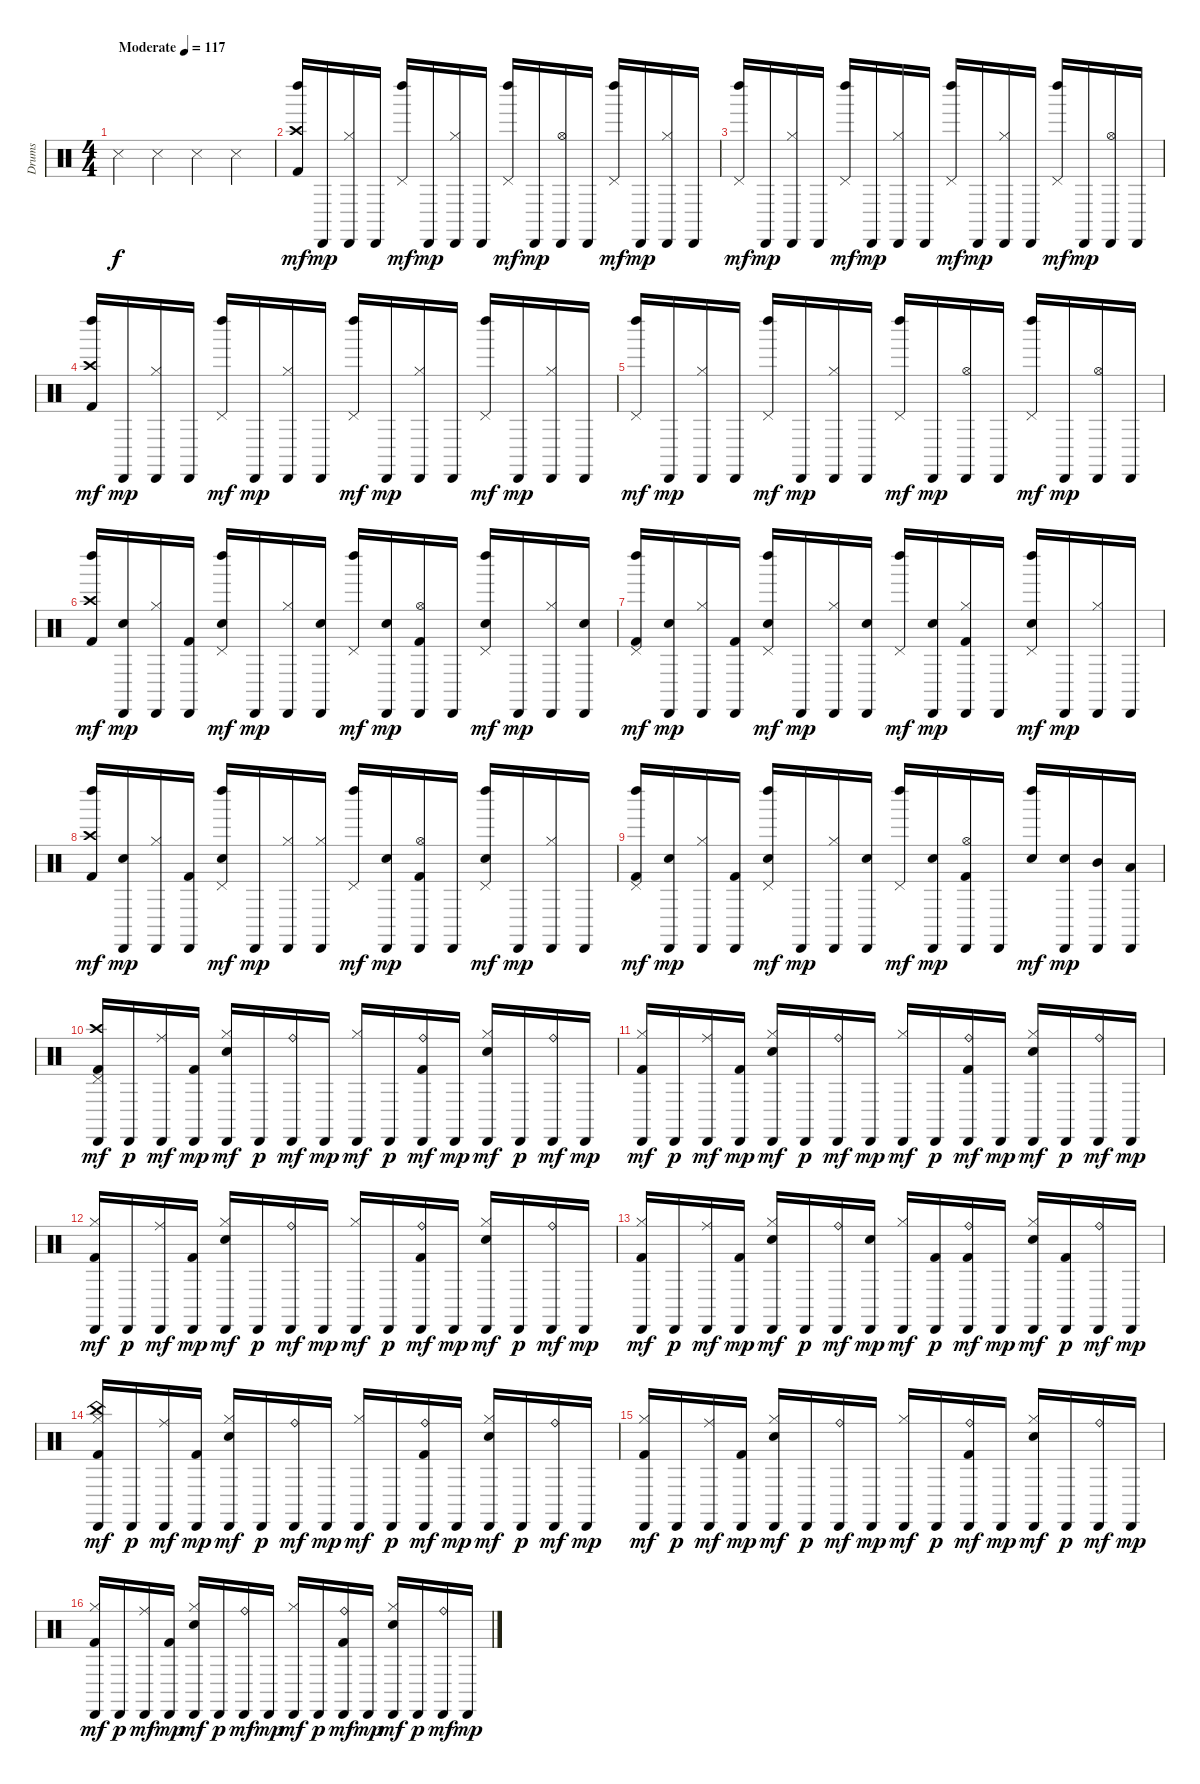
\track ("Drums" "Drums") {instrument percussion}
\staff {score}
\articulation defaults
\ts (4 4)
\tempo (117 "Moderate")
\clef neutral
\ks c "Metronome (hit)".4{dy f} "Metronome (hit)".4 "Metronome (hit)".4 "Metronome (hit)".4
|
("Crash high (hit)" "Kick (hit) 2" "Left Maraca (hit)").16{dy mf} "Cabasa (hit)".16{dy mp} ("Hi-Hat (closed)" "Cabasa (hit)").16 "Cabasa (hit)".16 ("Pedal Hi-Hat (hit)" "Left Maraca (hit)").16{dy mf} "Cabasa (hit)".16{dy mp} ("Hi-Hat (closed)" "Cabasa (hit)").16 "Cabasa (hit)".16 ("Pedal Hi-Hat (hit)" "Left Maraca (hit)").16{dy mf} "Cabasa (hit)".16{dy mp} ("Hi-Hat (open)" "Cabasa (hit)").16 "Cabasa (hit)".16 ("Pedal Hi-Hat (hit)" "Left Maraca (hit)").16{dy mf} "Cabasa (hit)".16{dy mp} ("Hi-Hat (closed)" "Cabasa (hit)").16 "Cabasa (hit)".16 |
("Pedal Hi-Hat (hit)" "Left Maraca (hit)").16{dy mf} "Cabasa (hit)".16{dy mp} ("Hi-Hat (closed)" "Cabasa (hit)").16 "Cabasa (hit)".16 ("Pedal Hi-Hat (hit)" "Left Maraca (hit)").16{dy mf} "Cabasa (hit)".16{dy mp} ("Hi-Hat (closed)" "Cabasa (hit)").16 "Cabasa (hit)".16 ("Pedal Hi-Hat (hit)" "Left Maraca (hit)").16{dy mf} "Cabasa (hit)".16{dy mp} ("Hi-Hat (closed)" "Cabasa (hit)").16 "Cabasa (hit)".16 ("Pedal Hi-Hat (hit)" "Left Maraca (hit)").16{dy mf} "Cabasa (hit)".16{dy mp} ("Hi-Hat (open)" "Cabasa (hit)").16 "Cabasa (hit)".16 |
("Crash high (hit)" "Kick (hit) 2" "Left Maraca (hit)").16{dy mf} "Cabasa (hit)".16{dy mp} ("Hi-Hat (closed)" "Cabasa (hit)").16 "Cabasa (hit)".16 ("Pedal Hi-Hat (hit)" "Left Maraca (hit)").16{dy mf} "Cabasa (hit)".16{dy mp} ("Hi-Hat (closed)" "Cabasa (hit)").16 "Cabasa (hit)".16 ("Pedal Hi-Hat (hit)" "Left Maraca (hit)").16{dy mf} "Cabasa (hit)".16{dy mp} ("Hi-Hat (closed)" "Cabasa (hit)").16 "Cabasa (hit)".16 ("Pedal Hi-Hat (hit)" "Left Maraca (hit)").16{dy mf} "Cabasa (hit)".16{dy mp} ("Hi-Hat (closed)" "Cabasa (hit)").16 "Cabasa (hit)".16 |
("Pedal Hi-Hat (hit)" "Left Maraca (hit)").16{dy mf} "Cabasa (hit)".16{dy mp} ("Hi-Hat (closed)" "Cabasa (hit)").16 "Cabasa (hit)".16 ("Pedal Hi-Hat (hit)" "Left Maraca (hit)").16{dy mf} "Cabasa (hit)".16{dy mp} ("Hi-Hat (closed)" "Cabasa (hit)").16 "Cabasa (hit)".16 ("Pedal Hi-Hat (hit)" "Left Maraca (hit)").16{dy mf} "Cabasa (hit)".16{dy mp} ("Hi-Hat (open)" "Cabasa (hit)").16 "Cabasa (hit)".16 ("Pedal Hi-Hat (hit)" "Left Maraca (hit)").16{dy mf} "Cabasa (hit)".16{dy mp} ("Hi-Hat (open)" "Cabasa (hit)").16 "Cabasa (hit)".16 |
("Crash high (hit)" "Kick (hit) 2" "Left Maraca (hit)").16{dy mf} ("Snare (hit) 2" "Cabasa (hit)").16{dy mp} ("Hi-Hat (closed)" "Cabasa (hit)").16 ("Kick (hit) 2" "Cabasa (hit)").16 ("Snare (hit) 2" "Pedal Hi-Hat (hit)" "Left Maraca (hit)").16{dy mf} "Cabasa (hit)".16{dy mp} ("Hi-Hat (closed)" "Cabasa (hit)").16 ("Snare (hit) 2" "Cabasa (hit)").16 ("Pedal Hi-Hat (hit)" "Left Maraca (hit)").16{dy mf} ("Snare (hit) 2" "Cabasa (hit)").16{dy mp} ("Kick (hit) 2" "Hi-Hat (open)" "Cabasa (hit)").16 "Cabasa (hit)".16 ("Snare (hit) 2" "Pedal Hi-Hat (hit)" "Left Maraca (hit)").16{dy mf} "Cabasa (hit)".16{dy mp} ("Hi-Hat (closed)" "Cabasa (hit)").16 ("Snare (hit) 2" "Cabasa (hit)").16 |
("Pedal Hi-Hat (hit)" "Kick (hit) 2" "Left Maraca (hit)").16{dy mf} ("Snare (hit) 2" "Cabasa (hit)").16{dy mp} ("Hi-Hat (closed)" "Cabasa (hit)").16 ("Kick (hit) 2" "Cabasa (hit)").16 ("Pedal Hi-Hat (hit)" "Snare (hit) 2" "Left Maraca (hit)").16{dy mf} "Cabasa (hit)".16{dy mp} ("Hi-Hat (closed)" "Cabasa (hit)").16 ("Snare (hit) 2" "Cabasa (hit)").16 ("Pedal Hi-Hat (hit)" "Left Maraca (hit)").16{dy mf} ("Snare (hit) 2" "Cabasa (hit)").16{dy mp} ("Hi-Hat (closed)" "Kick (hit) 2" "Cabasa (hit)").16 "Cabasa (hit)".16 ("Pedal Hi-Hat (hit)" "Snare (hit) 2" "Left Maraca (hit)").16{dy mf} "Cabasa (hit)".16{dy mp} ("Hi-Hat (closed)" "Cabasa (hit)").16 "Cabasa (hit)".16 |
("Kick (hit) 2" "Crash high (hit)" "Left Maraca (hit)").16{dy mf} ("Snare (hit) 2" "Cabasa (hit)").16{dy mp} ("Hi-Hat (closed)" "Cabasa (hit)").16 ("Kick (hit) 2" "Cabasa (hit)").16 ("Pedal Hi-Hat (hit)" "Snare (hit) 2" "Left Maraca (hit)").16{dy mf} "Cabasa (hit)".16{dy mp} ("Hi-Hat (closed)" "Cabasa (hit)").16 ("Hi-Hat (closed)" "Cabasa (hit)").16 ("Pedal Hi-Hat (hit)" "Left Maraca (hit)").16{dy mf} ("Snare (hit) 2" "Cabasa (hit)").16{dy mp} ("Kick (hit) 2" "Hi-Hat (open)" "Cabasa (hit)").16 "Cabasa (hit)".16 ("Snare (hit) 2" "Pedal Hi-Hat (hit)" "Left Maraca (hit)").16{dy mf} "Cabasa (hit)".16{dy mp} ("Hi-Hat (closed)" "Cabasa (hit)").16 "Cabasa (hit)".16 |
("Pedal Hi-Hat (hit)" "Kick (hit) 2" "Left Maraca (hit)").16{dy mf} ("Snare (hit) 2" "Cabasa (hit)").16{dy mp} ("Hi-Hat (closed)" "Cabasa (hit)").16 ("Kick (hit) 2" "Cabasa (hit)").16 ("Pedal Hi-Hat (hit)" "Snare (hit) 2" "Left Maraca (hit)").16{dy mf} "Cabasa (hit)".16{dy mp} ("Hi-Hat (closed)" "Cabasa (hit)").16 ("Snare (hit) 2" "Cabasa (hit)").16 ("Pedal Hi-Hat (hit)" "Left Maraca (hit)").16{dy mf} ("Snare (hit) 2" "Cabasa (hit)").16{dy mp} ("Hi-Hat (open)" "Kick (hit) 2" "Cabasa (hit)").16 "Cabasa (hit)".16 ("Snare (hit) 2" "Left Maraca (hit)").16{dy mf} ("Snare (hit) 2" "Cabasa (hit)").16{dy mp} ("Mid Tom (hit)" "Cabasa (hit)").16 ("Low Tom (hit)" "Cabasa (hit)").16 |
("Pedal Hi-Hat (hit)" "Crash high (hit)" "Kick (hit) 2" "Cabasa (hit)").16{dy mf} "Cabasa (hit)".16{dy p} ("Ride (middle)" "Cabasa (hit)").16{dy mf} ("Kick (hit) 2" "Cabasa (hit)").16{dy mp} ("Hi-Hat (closed)" "Snare (hit) 2" "Cabasa (hit)").16{dy mf} "Cabasa (hit)".16{dy p} ("Ride (bell)" "Cabasa (hit)").16{dy mf} "Cabasa (hit)".16{dy mp} ("Hi-Hat (closed)" "Cabasa (hit)").16{dy mf} "Cabasa (hit)".16{dy p} ("Ride (bell)" "Kick (hit) 2" "Cabasa (hit)").16{dy mf} "Cabasa (hit)".16{dy mp} ("Hi-Hat (closed)" "Snare (hit) 2" "Cabasa (hit)").16{dy mf} "Cabasa (hit)".16{dy p} ("Ride (bell)" "Cabasa (hit)").16{dy mf} "Cabasa (hit)".16{dy mp} |
("Kick (hit) 2" "Hi-Hat (closed)" "Cabasa (hit)").16{dy mf} "Cabasa (hit)".16{dy p} ("Ride (middle)" "Cabasa (hit)").16{dy mf} ("Kick (hit) 2" "Cabasa (hit)").16{dy mp} ("Hi-Hat (closed)" "Snare (hit) 2" "Cabasa (hit)").16{dy mf} "Cabasa (hit)".16{dy p} ("Ride (bell)" "Cabasa (hit)").16{dy mf} "Cabasa (hit)".16{dy mp} ("Hi-Hat (closed)" "Cabasa (hit)").16{dy mf} "Cabasa (hit)".16{dy p} ("Kick (hit) 2" "Ride (bell)" "Cabasa (hit)").16{dy mf} "Cabasa (hit)".16{dy mp} ("Hi-Hat (closed)" "Snare (hit) 2" "Cabasa (hit)").16{dy mf} "Cabasa (hit)".16{dy p} ("Ride (bell)" "Cabasa (hit)").16{dy mf} "Cabasa (hit)".16{dy mp} |
("Kick (hit) 2" "Hi-Hat (closed)" "Cabasa (hit)").16{dy mf} "Cabasa (hit)".16{dy p} ("Ride (middle)" "Cabasa (hit)").16{dy mf} ("Kick (hit) 2" "Cabasa (hit)").16{dy mp} ("Snare (hit) 2" "Hi-Hat (closed)" "Cabasa (hit)").16{dy mf} "Cabasa (hit)".16{dy p} ("Ride (bell)" "Cabasa (hit)").16{dy mf} "Cabasa (hit)".16{dy mp} ("Hi-Hat (closed)" "Cabasa (hit)").16{dy mf} "Cabasa (hit)".16{dy p} ("Ride (bell)" "Kick (hit) 2" "Cabasa (hit)").16{dy mf} "Cabasa (hit)".16{dy mp} ("Snare (hit) 2" "Hi-Hat (closed)" "Cabasa (hit)").16{dy mf} "Cabasa (hit)".16{dy p} ("Ride (bell)" "Cabasa (hit)").16{dy mf} "Cabasa (hit)".16{dy mp} |
("Hi-Hat (closed)" "Kick (hit) 2" "Cabasa (hit)").16{dy mf} "Cabasa (hit)".16{dy p} ("Ride (middle)" "Cabasa (hit)").16{dy mf} ("Kick (hit) 2" "Cabasa (hit)").16{dy mp} ("Hi-Hat (closed)" "Snare (hit) 2" "Cabasa (hit)").16{dy mf} "Cabasa (hit)".16{dy p} ("Ride (bell)" "Cabasa (hit)").16{dy mf} ("Snare (hit) 2" "Cabasa (hit)").16{dy mp} ("Hi-Hat (closed)" "Cabasa (hit)").16{dy mf} ("Kick (hit) 2" "Cabasa (hit)").16{dy p} ("Ride (bell)" "Kick (hit) 2" "Cabasa (hit)").16{dy mf} "Cabasa (hit)".16{dy mp} ("Hi-Hat (closed)" "Snare (hit) 2" "Cabasa (hit)").16{dy mf} ("Kick (hit) 2" "Cabasa (hit)").16{dy p} ("Ride (bell)" "Cabasa (hit)").16{dy mf} "Cabasa (hit)".16{dy mp} |
("China (hit)" "Hi-Hat (closed)" "Kick (hit) 2" "Cabasa (hit)").16{dy mf} "Cabasa (hit)".16{dy p} ("Ride (middle)" "Cabasa (hit)").16{dy mf} ("Kick (hit) 2" "Cabasa (hit)").16{dy mp} ("Snare (hit) 2" "Hi-Hat (closed)" "Cabasa (hit)").16{dy mf} "Cabasa (hit)".16{dy p} ("Ride (bell)" "Cabasa (hit)").16{dy mf} "Cabasa (hit)".16{dy mp} ("Hi-Hat (closed)" "Cabasa (hit)").16{dy mf} "Cabasa (hit)".16{dy p} ("Kick (hit) 2" "Ride (bell)" "Cabasa (hit)").16{dy mf} "Cabasa (hit)".16{dy mp} ("Hi-Hat (closed)" "Snare (hit) 2" "Cabasa (hit)").16{dy mf} "Cabasa (hit)".16{dy p} ("Ride (bell)" "Cabasa (hit)").16{dy mf} "Cabasa (hit)".16{dy mp} |
("Kick (hit) 2" "Hi-Hat (closed)" "Cabasa (hit)").16{dy mf} "Cabasa (hit)".16{dy p} ("Ride (middle)" "Cabasa (hit)").16{dy mf} ("Kick (hit) 2" "Cabasa (hit)").16{dy mp} ("Snare (hit) 2" "Hi-Hat (closed)" "Cabasa (hit)").16{dy mf} "Cabasa (hit)".16{dy p} ("Ride (bell)" "Cabasa (hit)").16{dy mf} "Cabasa (hit)".16{dy mp} ("Hi-Hat (closed)" "Cabasa (hit)").16{dy mf} "Cabasa (hit)".16{dy p} ("Kick (hit) 2" "Ride (bell)" "Cabasa (hit)").16{dy mf} "Cabasa (hit)".16{dy mp} ("Snare (hit) 2" "Hi-Hat (closed)" "Cabasa (hit)").16{dy mf} "Cabasa (hit)".16{dy p} ("Ride (bell)" "Cabasa (hit)").16{dy mf} "Cabasa (hit)".16{dy mp} |
("Hi-Hat (closed)" "Kick (hit) 2" "Cabasa (hit)").16{dy mf} "Cabasa (hit)".16{dy p} ("Ride (middle)" "Cabasa (hit)").16{dy mf} ("Kick (hit) 2" "Cabasa (hit)").16{dy mp} ("Hi-Hat (closed)" "Snare (hit) 2" "Cabasa (hit)").16{dy mf} "Cabasa (hit)".16{dy p} ("Ride (bell)" "Cabasa (hit)").16{dy mf} "Cabasa (hit)".16{dy mp} ("Hi-Hat (closed)" "Cabasa (hit)").16{dy mf} "Cabasa (hit)".16{dy p} ("Ride (bell)" "Kick (hit) 2" "Cabasa (hit)").16{dy mf} "Cabasa (hit)".16{dy mp} ("Hi-Hat (closed)" "Snare (hit) 2" "Cabasa (hit)").16{dy mf} "Cabasa (hit)".16{dy p} ("Ride (bell)" "Cabasa (hit)").16{dy mf} "Cabasa (hit)".16{dy mp}
